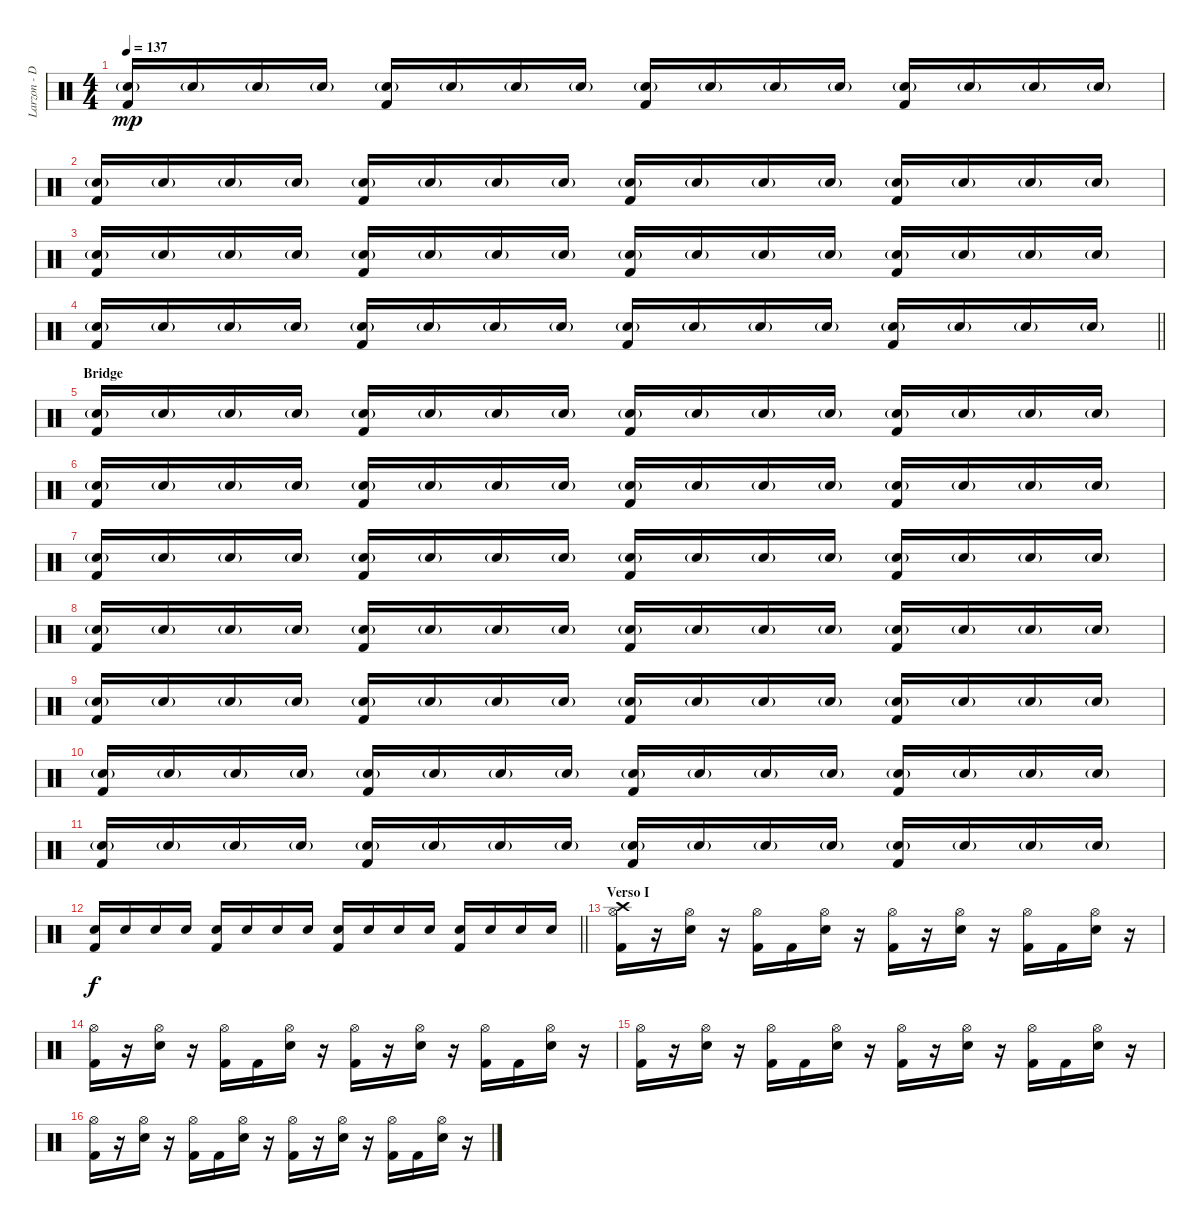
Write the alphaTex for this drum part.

\track ("Larzon - Drums" "Larzon - D") {instrument percussion}
\staff {score}
\articulation defaults
\ts (4 4)
\tempo 137
\clef neutral
\ks c
("Snare (hit) 2"{g} "Kick (hit) 2").16{dy mp} "Snare (hit) 2"{g}.16 "Snare (hit) 2"{g}.16 "Snare (hit) 2"{g}.16 ("Snare (hit) 2"{g} "Kick (hit) 2").16 "Snare (hit) 2"{g}.16 "Snare (hit) 2"{g}.16 "Snare (hit) 2"{g}.16 ("Snare (hit) 2"{g} "Kick (hit) 2").16 "Snare (hit) 2"{g}.16 "Snare (hit) 2"{g}.16 "Snare (hit) 2"{g}.16 ("Snare (hit) 2"{g} "Kick (hit) 2").16 "Snare (hit) 2"{g}.16 "Snare (hit) 2"{g}.16 "Snare (hit) 2"{g}.16 |
("Snare (hit) 2"{g} "Kick (hit) 2").16 "Snare (hit) 2"{g}.16 "Snare (hit) 2"{g}.16 "Snare (hit) 2"{g}.16 ("Snare (hit) 2"{g} "Kick (hit) 2").16 "Snare (hit) 2"{g}.16 "Snare (hit) 2"{g}.16 "Snare (hit) 2"{g}.16 ("Snare (hit) 2"{g} "Kick (hit) 2").16 "Snare (hit) 2"{g}.16 "Snare (hit) 2"{g}.16 "Snare (hit) 2"{g}.16 ("Snare (hit) 2"{g} "Kick (hit) 2").16 "Snare (hit) 2"{g}.16 "Snare (hit) 2"{g}.16 "Snare (hit) 2"{g}.16 |
("Snare (hit) 2"{g} "Kick (hit) 2").16 "Snare (hit) 2"{g}.16 "Snare (hit) 2"{g}.16 "Snare (hit) 2"{g}.16 ("Snare (hit) 2"{g} "Kick (hit) 2").16 "Snare (hit) 2"{g}.16 "Snare (hit) 2"{g}.16 "Snare (hit) 2"{g}.16 ("Snare (hit) 2"{g} "Kick (hit) 2").16 "Snare (hit) 2"{g}.16 "Snare (hit) 2"{g}.16 "Snare (hit) 2"{g}.16 ("Snare (hit) 2"{g} "Kick (hit) 2").16 "Snare (hit) 2"{g}.16 "Snare (hit) 2"{g}.16 "Snare (hit) 2"{g}.16 |
\barLineRight lightlight
("Snare (hit) 2"{g} "Kick (hit) 2").16 "Snare (hit) 2"{g}.16 "Snare (hit) 2"{g}.16 "Snare (hit) 2"{g}.16 ("Snare (hit) 2"{g} "Kick (hit) 2").16 "Snare (hit) 2"{g}.16 "Snare (hit) 2"{g}.16 "Snare (hit) 2"{g}.16 ("Snare (hit) 2"{g} "Kick (hit) 2").16 "Snare (hit) 2"{g}.16 "Snare (hit) 2"{g}.16 "Snare (hit) 2"{g}.16 ("Snare (hit) 2"{g} "Kick (hit) 2").16 "Snare (hit) 2"{g}.16 "Snare (hit) 2"{g}.16 "Snare (hit) 2"{g}.16 |
\section ("" "Bridge")
("Snare (hit) 2"{g} "Kick (hit) 2").16 "Snare (hit) 2"{g}.16 "Snare (hit) 2"{g}.16 "Snare (hit) 2"{g}.16 ("Snare (hit) 2"{g} "Kick (hit) 2").16 "Snare (hit) 2"{g}.16 "Snare (hit) 2"{g}.16 "Snare (hit) 2"{g}.16 ("Snare (hit) 2"{g} "Kick (hit) 2").16 "Snare (hit) 2"{g}.16 "Snare (hit) 2"{g}.16 "Snare (hit) 2"{g}.16 ("Snare (hit) 2"{g} "Kick (hit) 2").16 "Snare (hit) 2"{g}.16 "Snare (hit) 2"{g}.16 "Snare (hit) 2"{g}.16 |
("Snare (hit) 2"{g} "Kick (hit) 2").16 "Snare (hit) 2"{g}.16 "Snare (hit) 2"{g}.16 "Snare (hit) 2"{g}.16 ("Snare (hit) 2"{g} "Kick (hit) 2").16 "Snare (hit) 2"{g}.16 "Snare (hit) 2"{g}.16 "Snare (hit) 2"{g}.16 ("Snare (hit) 2"{g} "Kick (hit) 2").16 "Snare (hit) 2"{g}.16 "Snare (hit) 2"{g}.16 "Snare (hit) 2"{g}.16 ("Snare (hit) 2"{g} "Kick (hit) 2").16 "Snare (hit) 2"{g}.16 "Snare (hit) 2"{g}.16 "Snare (hit) 2"{g}.16 |
("Snare (hit) 2"{g} "Kick (hit) 2").16 "Snare (hit) 2"{g}.16 "Snare (hit) 2"{g}.16 "Snare (hit) 2"{g}.16 ("Snare (hit) 2"{g} "Kick (hit) 2").16 "Snare (hit) 2"{g}.16 "Snare (hit) 2"{g}.16 "Snare (hit) 2"{g}.16 ("Snare (hit) 2"{g} "Kick (hit) 2").16 "Snare (hit) 2"{g}.16 "Snare (hit) 2"{g}.16 "Snare (hit) 2"{g}.16 ("Snare (hit) 2"{g} "Kick (hit) 2").16 "Snare (hit) 2"{g}.16 "Snare (hit) 2"{g}.16 "Snare (hit) 2"{g}.16 |
("Snare (hit) 2"{g} "Kick (hit) 2").16 "Snare (hit) 2"{g}.16 "Snare (hit) 2"{g}.16 "Snare (hit) 2"{g}.16 ("Snare (hit) 2"{g} "Kick (hit) 2").16 "Snare (hit) 2"{g}.16 "Snare (hit) 2"{g}.16 "Snare (hit) 2"{g}.16 ("Snare (hit) 2"{g} "Kick (hit) 2").16 "Snare (hit) 2"{g}.16 "Snare (hit) 2"{g}.16 "Snare (hit) 2"{g}.16 ("Snare (hit) 2"{g} "Kick (hit) 2").16 "Snare (hit) 2"{g}.16 "Snare (hit) 2"{g}.16 "Snare (hit) 2"{g}.16 |
("Snare (hit) 2"{g} "Kick (hit) 2").16 "Snare (hit) 2"{g}.16 "Snare (hit) 2"{g}.16 "Snare (hit) 2"{g}.16 ("Snare (hit) 2"{g} "Kick (hit) 2").16 "Snare (hit) 2"{g}.16 "Snare (hit) 2"{g}.16 "Snare (hit) 2"{g}.16 ("Snare (hit) 2"{g} "Kick (hit) 2").16 "Snare (hit) 2"{g}.16 "Snare (hit) 2"{g}.16 "Snare (hit) 2"{g}.16 ("Snare (hit) 2"{g} "Kick (hit) 2").16 "Snare (hit) 2"{g}.16 "Snare (hit) 2"{g}.16 "Snare (hit) 2"{g}.16 |
("Snare (hit) 2"{g} "Kick (hit) 2").16 "Snare (hit) 2"{g}.16 "Snare (hit) 2"{g}.16 "Snare (hit) 2"{g}.16 ("Snare (hit) 2"{g} "Kick (hit) 2").16 "Snare (hit) 2"{g}.16 "Snare (hit) 2"{g}.16 "Snare (hit) 2"{g}.16 ("Snare (hit) 2"{g} "Kick (hit) 2").16 "Snare (hit) 2"{g}.16 "Snare (hit) 2"{g}.16 "Snare (hit) 2"{g}.16 ("Snare (hit) 2"{g} "Kick (hit) 2").16 "Snare (hit) 2"{g}.16 "Snare (hit) 2"{g}.16 "Snare (hit) 2"{g}.16 |
("Snare (hit) 2"{g} "Kick (hit) 2").16 "Snare (hit) 2"{g}.16 "Snare (hit) 2"{g}.16 "Snare (hit) 2"{g}.16 ("Snare (hit) 2"{g} "Kick (hit) 2").16 "Snare (hit) 2"{g}.16 "Snare (hit) 2"{g}.16 "Snare (hit) 2"{g}.16 ("Snare (hit) 2"{g} "Kick (hit) 2").16 "Snare (hit) 2"{g}.16 "Snare (hit) 2"{g}.16 "Snare (hit) 2"{g}.16 ("Snare (hit) 2"{g} "Kick (hit) 2").16 "Snare (hit) 2"{g}.16 "Snare (hit) 2"{g}.16 "Snare (hit) 2"{g}.16 |
\barLineRight lightlight
("Snare (hit) 2" "Kick (hit) 2").16{dy f} "Snare (hit) 2".16 "Snare (hit) 2".16 "Snare (hit) 2".16 ("Snare (hit) 2" "Kick (hit) 2").16 "Snare (hit) 2".16 "Snare (hit) 2".16 "Snare (hit) 2".16 ("Snare (hit) 2" "Kick (hit) 2").16 "Snare (hit) 2".16 "Snare (hit) 2".16 "Snare (hit) 2".16 ("Snare (hit) 2" "Kick (hit) 2").16 "Snare (hit) 2".16 "Snare (hit) 2".16 "Snare (hit) 2".16 |
\section ("" "Verso I")
("Kick (hit) 2" "Crash high (hit)" "Hi-Hat (open)").16 r.16 ("Snare (hit) 2" "Hi-Hat (open)").16 r.16 ("Kick (hit) 2" "Hi-Hat (open)").16 "Kick (hit) 2".16 ("Snare (hit) 2" "Hi-Hat (open)").16 r.16 ("Kick (hit) 2" "Hi-Hat (open)").16 r.16 ("Snare (hit) 2" "Hi-Hat (open)").16 r.16 ("Kick (hit) 2" "Hi-Hat (open)").16 "Kick (hit) 2".16 ("Snare (hit) 2" "Hi-Hat (open)").16 r.16 |
("Kick (hit) 2" "Hi-Hat (open)").16 r.16 ("Snare (hit) 2" "Hi-Hat (open)").16 r.16 ("Kick (hit) 2" "Hi-Hat (open)").16 "Kick (hit) 2".16 ("Snare (hit) 2" "Hi-Hat (open)").16 r.16 ("Kick (hit) 2" "Hi-Hat (open)").16 r.16 ("Snare (hit) 2" "Hi-Hat (open)").16 r.16 ("Kick (hit) 2" "Hi-Hat (open)").16 "Kick (hit) 2".16 ("Snare (hit) 2" "Hi-Hat (open)").16 r.16 |
("Kick (hit) 2" "Hi-Hat (open)").16 r.16 ("Snare (hit) 2" "Hi-Hat (open)").16 r.16 ("Kick (hit) 2" "Hi-Hat (open)").16 "Kick (hit) 2".16 ("Snare (hit) 2" "Hi-Hat (open)").16 r.16 ("Kick (hit) 2" "Hi-Hat (open)").16 r.16 ("Snare (hit) 2" "Hi-Hat (open)").16 r.16 ("Kick (hit) 2" "Hi-Hat (open)").16 "Kick (hit) 2".16 ("Snare (hit) 2" "Hi-Hat (open)").16 r.16 |
("Kick (hit) 2" "Hi-Hat (open)").16 r.16 ("Snare (hit) 2" "Hi-Hat (open)").16 r.16 ("Kick (hit) 2" "Hi-Hat (open)").16 "Kick (hit) 2".16 ("Snare (hit) 2" "Hi-Hat (open)").16 r.16 ("Kick (hit) 2" "Hi-Hat (open)").16 r.16 ("Snare (hit) 2" "Hi-Hat (open)").16 r.16 ("Kick (hit) 2" "Hi-Hat (open)").16 "Kick (hit) 2".16 ("Snare (hit) 2" "Hi-Hat (open)").16 r.16
